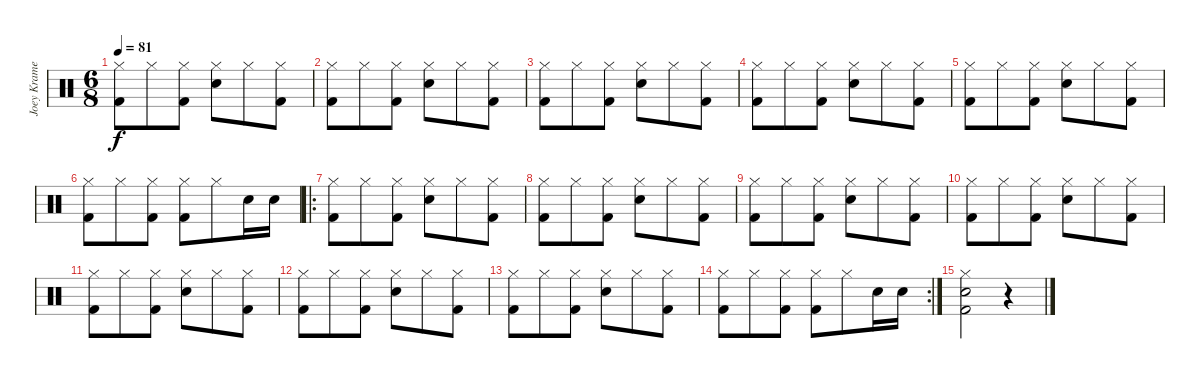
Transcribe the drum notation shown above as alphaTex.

\track ("Joey Kramer" "Joey Krame") {instrument percussion}
\staff {score}
\articulation defaults
\ts (6 8)
\tempo 81
\clef neutral
\ks c
("Hi-Hat (closed)" "Kick (hit) 2").8{dy f} "Hi-Hat (closed)".8 ("Hi-Hat (closed)" "Kick (hit) 2").8 ("Hi-Hat (closed)" "Snare (hit) 2").8 "Hi-Hat (closed)".8 ("Hi-Hat (closed)" "Kick (hit) 2").8 |
("Hi-Hat (closed)" "Kick (hit) 2").8 "Hi-Hat (closed)".8 ("Hi-Hat (closed)" "Kick (hit) 2").8 ("Hi-Hat (closed)" "Snare (hit) 2").8 "Hi-Hat (closed)".8 ("Hi-Hat (closed)" "Kick (hit) 2").8 |
("Hi-Hat (closed)" "Kick (hit) 2").8 "Hi-Hat (closed)".8 ("Hi-Hat (closed)" "Kick (hit) 2").8 ("Hi-Hat (closed)" "Snare (hit) 2").8 "Hi-Hat (closed)".8 ("Hi-Hat (closed)" "Kick (hit) 2").8 |
("Hi-Hat (closed)" "Kick (hit) 2").8 "Hi-Hat (closed)".8 ("Hi-Hat (closed)" "Kick (hit) 2").8 ("Hi-Hat (closed)" "Snare (hit) 2").8 "Hi-Hat (closed)".8 ("Hi-Hat (closed)" "Kick (hit) 2").8 |
("Hi-Hat (closed)" "Kick (hit) 2").8 "Hi-Hat (closed)".8 ("Hi-Hat (closed)" "Kick (hit) 2").8 ("Hi-Hat (closed)" "Snare (hit) 2").8 "Hi-Hat (closed)".8 ("Hi-Hat (closed)" "Kick (hit) 2").8 |
("Hi-Hat (closed)" "Kick (hit) 2").8 "Hi-Hat (closed)".8 ("Hi-Hat (closed)" "Kick (hit) 2").8 ("Hi-Hat (closed)" "Kick (hit) 2").8 "Hi-Hat (closed)".8 "Snare (hit) 2".16 "Snare (hit) 2".16 |
\ro
("Hi-Hat (closed)" "Kick (hit) 2").8 "Hi-Hat (closed)".8 ("Hi-Hat (closed)" "Kick (hit) 2").8 ("Hi-Hat (closed)" "Snare (hit) 2").8 "Hi-Hat (closed)".8 ("Hi-Hat (closed)" "Kick (hit) 2").8 |
("Hi-Hat (closed)" "Kick (hit) 2").8 "Hi-Hat (closed)".8 ("Hi-Hat (closed)" "Kick (hit) 2").8 ("Hi-Hat (closed)" "Snare (hit) 2").8 "Hi-Hat (closed)".8 ("Hi-Hat (closed)" "Kick (hit) 2").8 |
("Hi-Hat (closed)" "Kick (hit) 2").8 "Hi-Hat (closed)".8 ("Hi-Hat (closed)" "Kick (hit) 2").8 ("Hi-Hat (closed)" "Snare (hit) 2").8 "Hi-Hat (closed)".8 ("Hi-Hat (closed)" "Kick (hit) 2").8 |
("Hi-Hat (closed)" "Kick (hit) 2").8 "Hi-Hat (closed)".8 ("Hi-Hat (closed)" "Kick (hit) 2").8 ("Hi-Hat (closed)" "Snare (hit) 2").8 "Hi-Hat (closed)".8 ("Hi-Hat (closed)" "Kick (hit) 2").8 |
("Hi-Hat (closed)" "Kick (hit) 2").8 "Hi-Hat (closed)".8 ("Hi-Hat (closed)" "Kick (hit) 2").8 ("Hi-Hat (closed)" "Snare (hit) 2").8 "Hi-Hat (closed)".8 ("Hi-Hat (closed)" "Kick (hit) 2").8 |
("Hi-Hat (closed)" "Kick (hit) 2").8 "Hi-Hat (closed)".8 ("Hi-Hat (closed)" "Kick (hit) 2").8 ("Hi-Hat (closed)" "Snare (hit) 2").8 "Hi-Hat (closed)".8 ("Hi-Hat (closed)" "Kick (hit) 2").8 |
("Hi-Hat (closed)" "Kick (hit) 2").8 "Hi-Hat (closed)".8 ("Hi-Hat (closed)" "Kick (hit) 2").8 ("Hi-Hat (closed)" "Snare (hit) 2").8 "Hi-Hat (closed)".8 ("Hi-Hat (closed)" "Kick (hit) 2").8 |
\rc 2
("Hi-Hat (closed)" "Kick (hit) 2").8 "Hi-Hat (closed)".8 ("Hi-Hat (closed)" "Kick (hit) 2").8 ("Hi-Hat (closed)" "Kick (hit) 2").8 "Hi-Hat (closed)".8 "Snare (hit) 2".16 "Snare (hit) 2".16 |
("Hi-Hat (closed)" "Kick (hit) 2" "Snare (hit) 2").2 r.4
